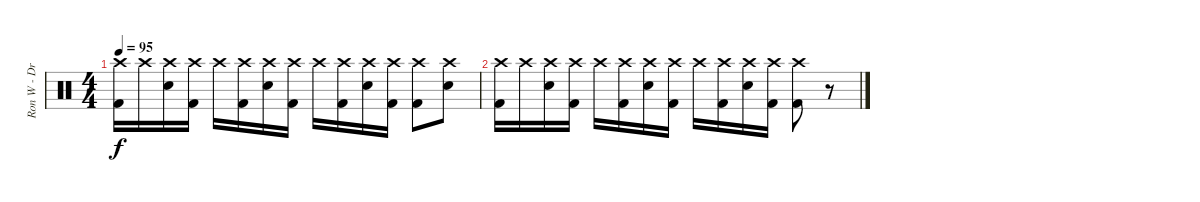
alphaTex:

\track ("Ron W - Drums" "Ron W - Dr") {instrument percussion}
\staff {score}
\articulation defaults
\ts (4 4)
\tempo 95
\clef neutral
\ks c
("Crash high (hit)" "Kick (hit) 2").16{dy f} "Crash high (hit)".16 ("Crash high (hit)" "Electric Snare (hit)").16 ("Crash high (hit)" "Kick (hit) 2").16 "Crash high (hit)".16 ("Crash high (hit)" "Kick (hit) 2").16 ("Crash high (hit)" "Electric Snare (hit)").16 ("Crash high (hit)" "Kick (hit) 2").16 "Crash high (hit)".16 ("Crash high (hit)" "Kick (hit) 2").16 ("Crash high (hit)" "Electric Snare (hit)").16 ("Crash high (hit)" "Kick (hit) 2").16 ("Crash high (hit)" "Kick (hit) 2").8 ("Crash high (hit)" "Electric Snare (hit)").8 |
("Crash high (hit)" "Kick (hit) 2").16 "Crash high (hit)".16 ("Crash high (hit)" "Electric Snare (hit)").16 ("Crash high (hit)" "Kick (hit) 2").16 "Crash high (hit)".16 ("Crash high (hit)" "Kick (hit) 2").16 ("Crash high (hit)" "Electric Snare (hit)").16 ("Crash high (hit)" "Kick (hit) 2").16 "Crash high (hit)".16 ("Crash high (hit)" "Kick (hit) 2").16 ("Crash high (hit)" "Electric Snare (hit)").16 ("Crash high (hit)" "Kick (hit) 2").16 ("Crash high (hit)" "Kick (hit) 2").8 r.8
